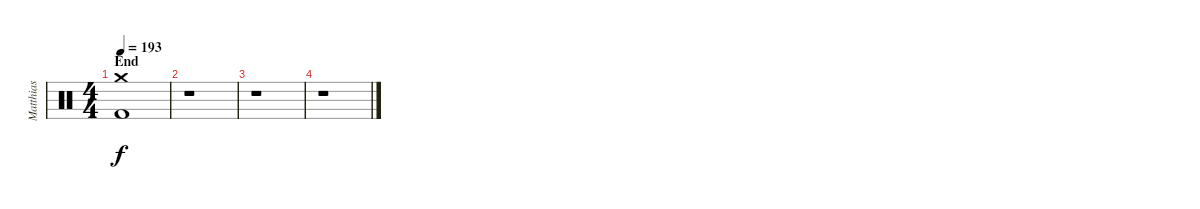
\track ("Matthias" "Matthias") {instrument percussion}
\staff {score}
\articulation defaults
\ts (4 4)
\section ("" "End")
\tempo 193
\clef neutral
\ks c
("Crash medium (hit)" "Kick (hit) 2").1{dy f} |
r.1 |
r.1 |
r.1
